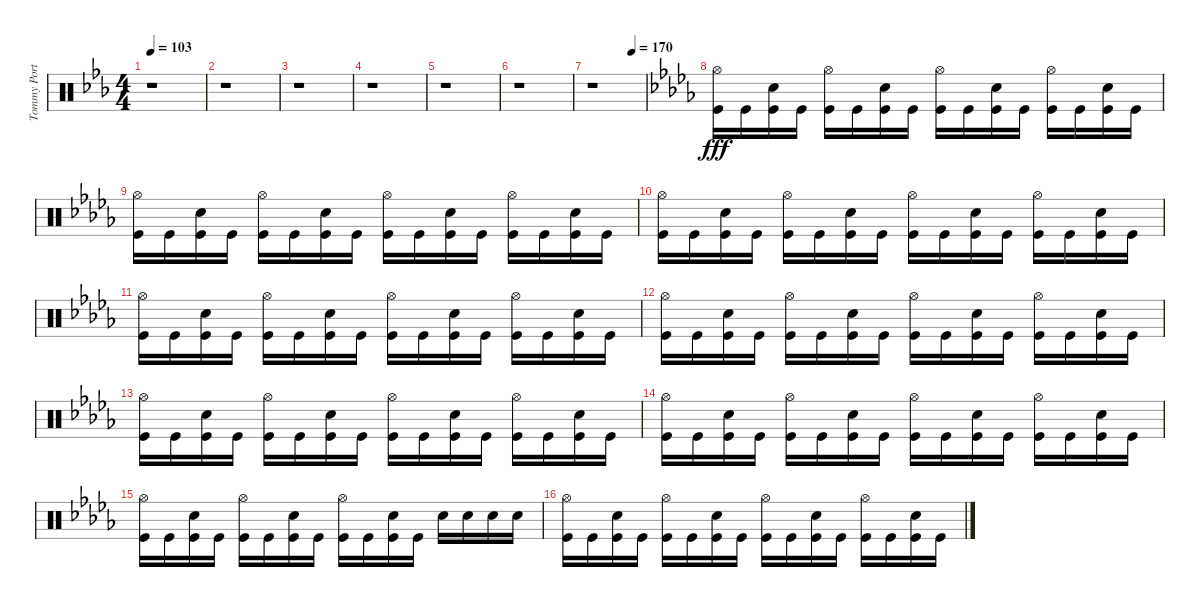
\track ("Tommy Portimo (Percussion)" "Tommy Port") {instrument percussion}
\staff {score}
\articulation defaults
\ts (4 4)
\tempo 103
\clef neutral
\ks eb
r.1{dy fff} |
r.1 |
r.1 |
r.1 |
r.1 |
r.1 |
\tempo (170 0.75)
r.1 |
\ks db
("Kick (hit)" "Hi-Hat (open)").16 "Kick (hit)".16 ("Kick (hit)" "Electric Snare (hit)").16 "Kick (hit)".16 ("Kick (hit)" "Hi-Hat (open)").16 "Kick (hit)".16 ("Kick (hit)" "Electric Snare (hit)").16 "Kick (hit)".16 ("Kick (hit)" "Hi-Hat (open)").16 "Kick (hit)".16 ("Kick (hit)" "Electric Snare (hit)").16 "Kick (hit)".16 ("Kick (hit)" "Hi-Hat (open)").16 "Kick (hit)".16 ("Kick (hit)" "Electric Snare (hit)").16 "Kick (hit)".16 |
("Kick (hit)" "Hi-Hat (open)").16 "Kick (hit)".16 ("Kick (hit)" "Electric Snare (hit)").16 "Kick (hit)".16 ("Kick (hit)" "Hi-Hat (open)").16 "Kick (hit)".16 ("Kick (hit)" "Electric Snare (hit)").16 "Kick (hit)".16 ("Kick (hit)" "Hi-Hat (open)").16 "Kick (hit)".16 ("Kick (hit)" "Electric Snare (hit)").16 "Kick (hit)".16 ("Kick (hit)" "Hi-Hat (open)").16 "Kick (hit)".16 ("Kick (hit)" "Electric Snare (hit)").16 "Kick (hit)".16 |
("Kick (hit)" "Hi-Hat (open)").16 "Kick (hit)".16 ("Kick (hit)" "Electric Snare (hit)").16 "Kick (hit)".16 ("Kick (hit)" "Hi-Hat (open)").16 "Kick (hit)".16 ("Kick (hit)" "Electric Snare (hit)").16 "Kick (hit)".16 ("Kick (hit)" "Hi-Hat (open)").16 "Kick (hit)".16 ("Kick (hit)" "Electric Snare (hit)").16 "Kick (hit)".16 ("Kick (hit)" "Hi-Hat (open)").16 "Kick (hit)".16 ("Kick (hit)" "Electric Snare (hit)").16 "Kick (hit)".16 |
("Kick (hit)" "Hi-Hat (open)").16 "Kick (hit)".16 ("Kick (hit)" "Electric Snare (hit)").16 "Kick (hit)".16 ("Kick (hit)" "Hi-Hat (open)").16 "Kick (hit)".16 ("Kick (hit)" "Electric Snare (hit)").16 "Kick (hit)".16 ("Kick (hit)" "Hi-Hat (open)").16 "Kick (hit)".16 ("Kick (hit)" "Electric Snare (hit)").16 "Kick (hit)".16 ("Kick (hit)" "Hi-Hat (open)").16 "Kick (hit)".16 ("Kick (hit)" "Electric Snare (hit)").16 "Kick (hit)".16 |
("Kick (hit)" "Hi-Hat (open)").16 "Kick (hit)".16 ("Kick (hit)" "Electric Snare (hit)").16 "Kick (hit)".16 ("Kick (hit)" "Hi-Hat (open)").16 "Kick (hit)".16 ("Kick (hit)" "Electric Snare (hit)").16 "Kick (hit)".16 ("Kick (hit)" "Hi-Hat (open)").16 "Kick (hit)".16 ("Kick (hit)" "Electric Snare (hit)").16 "Kick (hit)".16 ("Kick (hit)" "Hi-Hat (open)").16 "Kick (hit)".16 ("Kick (hit)" "Electric Snare (hit)").16 "Kick (hit)".16 |
("Kick (hit)" "Hi-Hat (open)").16 "Kick (hit)".16 ("Kick (hit)" "Electric Snare (hit)").16 "Kick (hit)".16 ("Kick (hit)" "Hi-Hat (open)").16 "Kick (hit)".16 ("Kick (hit)" "Electric Snare (hit)").16 "Kick (hit)".16 ("Kick (hit)" "Hi-Hat (open)").16 "Kick (hit)".16 ("Kick (hit)" "Electric Snare (hit)").16 "Kick (hit)".16 ("Kick (hit)" "Hi-Hat (open)").16 "Kick (hit)".16 ("Kick (hit)" "Electric Snare (hit)").16 "Kick (hit)".16 |
("Kick (hit)" "Hi-Hat (open)").16 "Kick (hit)".16 ("Kick (hit)" "Electric Snare (hit)").16 "Kick (hit)".16 ("Kick (hit)" "Hi-Hat (open)").16 "Kick (hit)".16 ("Kick (hit)" "Electric Snare (hit)").16 "Kick (hit)".16 ("Kick (hit)" "Hi-Hat (open)").16 "Kick (hit)".16 ("Kick (hit)" "Electric Snare (hit)").16 "Kick (hit)".16 ("Kick (hit)" "Hi-Hat (open)").16 "Kick (hit)".16 ("Kick (hit)" "Electric Snare (hit)").16 "Kick (hit)".16 |
("Kick (hit)" "Hi-Hat (open)").16 "Kick (hit)".16 ("Kick (hit)" "Electric Snare (hit)").16 "Kick (hit)".16 ("Kick (hit)" "Hi-Hat (open)").16 "Kick (hit)".16 ("Kick (hit)" "Electric Snare (hit)").16 "Kick (hit)".16 ("Kick (hit)" "Hi-Hat (open)").16 "Kick (hit)".16 ("Kick (hit)" "Electric Snare (hit)").16 "Kick (hit)".16 "Electric Snare (hit)".16 "Electric Snare (hit)".16 "Electric Snare (hit)".16 "Electric Snare (hit)".16 |
("Kick (hit)" "Hi-Hat (open)").16 "Kick (hit)".16 ("Kick (hit)" "Electric Snare (hit)").16 "Kick (hit)".16 ("Kick (hit)" "Hi-Hat (open)").16 "Kick (hit)".16 ("Kick (hit)" "Electric Snare (hit)").16 "Kick (hit)".16 ("Kick (hit)" "Hi-Hat (open)").16 "Kick (hit)".16 ("Kick (hit)" "Electric Snare (hit)").16 "Kick (hit)".16 ("Kick (hit)" "Hi-Hat (open)").16 "Kick (hit)".16 ("Kick (hit)" "Electric Snare (hit)").16 "Kick (hit)".16
